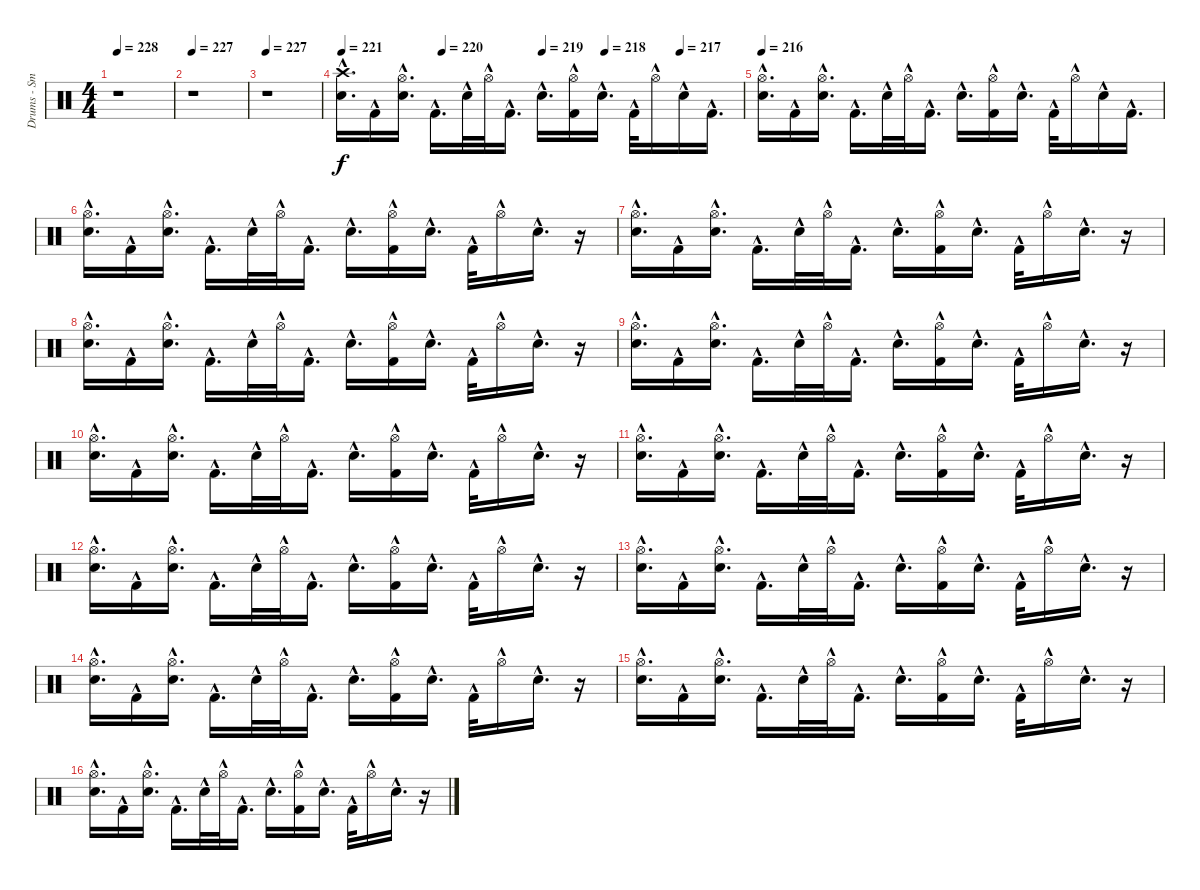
\track ("Drums - Smelly" "Drums - Sm") {instrument percussion}
\staff {score}
\articulation defaults
\ts (4 4)
\tempo 228
\clef neutral
\ks c
r.1{dy fff} |
\tempo 227
r.1 |
\tempo 227
r.1 |
\tempo 221
\tempo (220 0.25)
\tempo (219 0.5)
\tempo (218 0.65625)
\tempo (217 0.84375)
("Crash high (hit)"{hac} "Electric Snare (hit)"{hac}).16{d dy f} "Kick (hit) 2"{hac}.16 ("Hi-Hat (open)"{hac} "Electric Snare (hit)"{hac}).16{d} "Kick (hit) 2"{hac}.16{d} "Electric Snare (hit)"{hac}.32 "Hi-Hat (open)"{hac}.32 "Kick (hit) 2"{hac}.16{d} "Electric Snare (hit)"{hac}.16{d} ("Kick (hit) 2"{hac} "Hi-Hat (open)"{hac}).16 "Electric Snare (hit)"{hac}.16{d} "Kick (hit) 2"{hac}.32 "Hi-Hat (open)"{hac}.16 "Electric Snare (hit)"{hac}.16 "Kick (hit) 2"{hac}.16{d} |
\tempo 216
("Hi-Hat (open)"{hac} "Electric Snare (hit)"{hac}).16{d} "Kick (hit) 2"{hac}.16 ("Electric Snare (hit)"{hac} "Hi-Hat (open)"{hac}).16{d} "Kick (hit) 2"{hac}.16{d} "Electric Snare (hit)"{hac}.32 "Hi-Hat (open)"{hac}.32 "Kick (hit) 2"{hac}.16{d} "Electric Snare (hit)"{hac}.16{d} ("Hi-Hat (open)"{hac} "Kick (hit) 2"{hac}).16 "Electric Snare (hit)"{hac}.16{d} "Kick (hit) 2"{hac}.32 "Hi-Hat (open)"{hac}.16 "Electric Snare (hit)"{hac}.16 "Kick (hit) 2"{hac}.16{d} |
("Hi-Hat (open)"{hac} "Electric Snare (hit)"{hac}).16{d} "Kick (hit) 2"{hac}.16 ("Hi-Hat (open)"{hac} "Electric Snare (hit)"{hac}).16{d} "Kick (hit) 2"{hac}.16{d} "Electric Snare (hit)"{hac}.32 "Hi-Hat (open)"{hac}.32 "Kick (hit) 2"{hac}.16{d} "Electric Snare (hit)"{hac}.16{d} ("Kick (hit) 2"{hac} "Hi-Hat (open)"{hac}).16 "Electric Snare (hit)"{hac}.16{d} "Kick (hit) 2"{hac}.32 "Hi-Hat (open)"{hac}.16 "Electric Snare (hit)"{hac}.16{d} r.16 |
("Electric Snare (hit)"{hac} "Hi-Hat (open)"{hac}).16{d} "Kick (hit) 2"{hac}.16 ("Hi-Hat (open)"{hac} "Electric Snare (hit)"{hac}).16{d} "Kick (hit) 2"{hac}.16{d} "Electric Snare (hit)"{hac}.32 "Hi-Hat (open)"{hac}.32 "Kick (hit) 2"{hac}.16{d} "Electric Snare (hit)"{hac}.16{d} ("Hi-Hat (open)"{hac} "Kick (hit) 2"{hac}).16 "Electric Snare (hit)"{hac}.16{d} "Kick (hit) 2"{hac}.32 "Hi-Hat (open)"{hac}.16 "Electric Snare (hit)"{hac}.16{d} r.16 |
("Electric Snare (hit)"{hac} "Hi-Hat (open)"{hac}).16{d} "Kick (hit) 2"{hac}.16 ("Hi-Hat (open)"{hac} "Electric Snare (hit)"{hac}).16{d} "Kick (hit) 2"{hac}.16{d} "Electric Snare (hit)"{hac}.32 "Hi-Hat (open)"{hac}.32 "Kick (hit) 2"{hac}.16{d} "Electric Snare (hit)"{hac}.16{d} ("Hi-Hat (open)"{hac} "Kick (hit) 2"{hac}).16 "Electric Snare (hit)"{hac}.16{d} "Kick (hit) 2"{hac}.32 "Hi-Hat (open)"{hac}.16 "Electric Snare (hit)"{hac}.16{d} r.16 |
("Hi-Hat (open)"{hac} "Electric Snare (hit)"{hac}).16{d} "Kick (hit) 2"{hac}.16 ("Hi-Hat (open)"{hac} "Electric Snare (hit)"{hac}).16{d} "Kick (hit) 2"{hac}.16{d} "Electric Snare (hit)"{hac}.32 "Hi-Hat (open)"{hac}.32 "Kick (hit) 2"{hac}.16{d} "Electric Snare (hit)"{hac}.16{d} ("Hi-Hat (open)"{hac} "Kick (hit) 2"{hac}).16 "Electric Snare (hit)"{hac}.16{d} "Kick (hit) 2"{hac}.32 "Hi-Hat (open)"{hac}.16 "Electric Snare (hit)"{hac}.16{d} r.16 |
("Hi-Hat (open)"{hac} "Electric Snare (hit)"{hac}).16{d} "Kick (hit) 2"{hac}.16 ("Hi-Hat (open)"{hac} "Electric Snare (hit)"{hac}).16{d} "Kick (hit) 2"{hac}.16{d} "Electric Snare (hit)"{hac}.32 "Hi-Hat (open)"{hac}.32 "Kick (hit) 2"{hac}.16{d} "Electric Snare (hit)"{hac}.16{d} ("Kick (hit) 2"{hac} "Hi-Hat (open)"{hac}).16 "Electric Snare (hit)"{hac}.16{d} "Kick (hit) 2"{hac}.32 "Hi-Hat (open)"{hac}.16 "Electric Snare (hit)"{hac}.16{d} r.16 |
("Electric Snare (hit)"{hac} "Hi-Hat (open)"{hac}).16{d} "Kick (hit) 2"{hac}.16 ("Hi-Hat (open)"{hac} "Electric Snare (hit)"{hac}).16{d} "Kick (hit) 2"{hac}.16{d} "Electric Snare (hit)"{hac}.32 "Hi-Hat (open)"{hac}.32 "Kick (hit) 2"{hac}.16{d} "Electric Snare (hit)"{hac}.16{d} ("Hi-Hat (open)"{hac} "Kick (hit) 2"{hac}).16 "Electric Snare (hit)"{hac}.16{d} "Kick (hit) 2"{hac}.32 "Hi-Hat (open)"{hac}.16 "Electric Snare (hit)"{hac}.16{d} r.16 |
("Electric Snare (hit)"{hac} "Hi-Hat (open)"{hac}).16{d} "Kick (hit) 2"{hac}.16 ("Hi-Hat (open)"{hac} "Electric Snare (hit)"{hac}).16{d} "Kick (hit) 2"{hac}.16{d} "Electric Snare (hit)"{hac}.32 "Hi-Hat (open)"{hac}.32 "Kick (hit) 2"{hac}.16{d} "Electric Snare (hit)"{hac}.16{d} ("Hi-Hat (open)"{hac} "Kick (hit) 2"{hac}).16 "Electric Snare (hit)"{hac}.16{d} "Kick (hit) 2"{hac}.32 "Hi-Hat (open)"{hac}.16 "Electric Snare (hit)"{hac}.16{d} r.16 |
("Hi-Hat (open)"{hac} "Electric Snare (hit)"{hac}).16{d} "Kick (hit) 2"{hac}.16 ("Electric Snare (hit)"{hac} "Hi-Hat (open)"{hac}).16{d} "Kick (hit) 2"{hac}.16{d} "Electric Snare (hit)"{hac}.32 "Hi-Hat (open)"{hac}.32 "Kick (hit) 2"{hac}.16{d} "Electric Snare (hit)"{hac}.16{d} ("Kick (hit) 2"{hac} "Hi-Hat (open)"{hac}).16 "Electric Snare (hit)"{hac}.16{d} "Kick (hit) 2"{hac}.32 "Hi-Hat (open)"{hac}.16 "Electric Snare (hit)"{hac}.16{d} r.16 |
("Electric Snare (hit)"{hac} "Hi-Hat (open)"{hac}).16{d} "Kick (hit) 2"{hac}.16 ("Hi-Hat (open)"{hac} "Electric Snare (hit)"{hac}).16{d} "Kick (hit) 2"{hac}.16{d} "Electric Snare (hit)"{hac}.32 "Hi-Hat (open)"{hac}.32 "Kick (hit) 2"{hac}.16{d} "Electric Snare (hit)"{hac}.16{d} ("Kick (hit) 2"{hac} "Hi-Hat (open)"{hac}).16 "Electric Snare (hit)"{hac}.16{d} "Kick (hit) 2"{hac}.32 "Hi-Hat (open)"{hac}.16 "Electric Snare (hit)"{hac}.16{d} r.16 |
("Hi-Hat (open)"{hac} "Electric Snare (hit)"{hac}).16{d} "Kick (hit) 2"{hac}.16 ("Hi-Hat (open)"{hac} "Electric Snare (hit)"{hac}).16{d} "Kick (hit) 2"{hac}.16{d} "Electric Snare (hit)"{hac}.32 "Hi-Hat (open)"{hac}.32 "Kick (hit) 2"{hac}.16{d} "Electric Snare (hit)"{hac}.16{d} ("Hi-Hat (open)"{hac} "Kick (hit) 2"{hac}).16 "Electric Snare (hit)"{hac}.16{d} "Kick (hit) 2"{hac}.32 "Hi-Hat (open)"{hac}.16 "Electric Snare (hit)"{hac}.16{d} r.16 |
("Electric Snare (hit)"{hac} "Hi-Hat (open)"{hac}).16{d} "Kick (hit) 2"{hac}.16 ("Electric Snare (hit)"{hac} "Hi-Hat (open)"{hac}).16{d} "Kick (hit) 2"{hac}.16{d} "Electric Snare (hit)"{hac}.32 "Hi-Hat (open)"{hac}.32 "Kick (hit) 2"{hac}.16{d} "Electric Snare (hit)"{hac}.16{d} ("Kick (hit) 2"{hac} "Hi-Hat (open)"{hac}).16 "Electric Snare (hit)"{hac}.16{d} "Kick (hit) 2"{hac}.32 "Hi-Hat (open)"{hac}.16 "Electric Snare (hit)"{hac}.16{d} r.16
